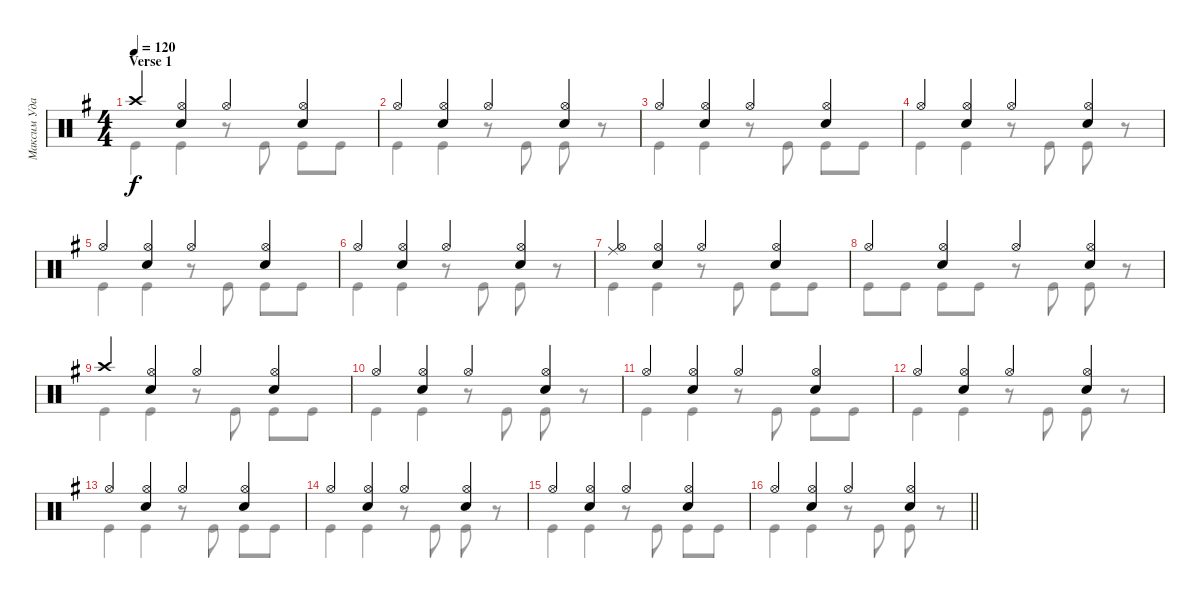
\track ("Максим Удалов" "Максим Уда") {instrument percussion}
\staff {score}
\articulation defaults
\voice
\ts (4 4)
\section ("" "Verse 1")
\tempo 120
\clef neutral
\ks g "Crash high (hit)".4{dy f}
("Snare (hit) 2" "Hi-Hat (open)").4 "Hi-Hat (open)".4 ("Snare (hit) 2" "Hi-Hat (open)").4 |
"Hi-Hat (open)".4 ("Snare (hit) 2" "Hi-Hat (open)").4 "Hi-Hat (open)".4 ("Snare (hit) 2" "Hi-Hat (open)").4 |
"Hi-Hat (open)".4 ("Snare (hit) 2" "Hi-Hat (open)").4 "Hi-Hat (open)".4 ("Snare (hit) 2" "Hi-Hat (open)").4 |
"Hi-Hat (open)".4 ("Snare (hit) 2" "Hi-Hat (open)").4 "Hi-Hat (open)".4 ("Snare (hit) 2" "Hi-Hat (open)").4 |
"Hi-Hat (open)".4 ("Snare (hit) 2" "Hi-Hat (open)").4 "Hi-Hat (open)".4 ("Snare (hit) 2" "Hi-Hat (open)").4 |
"Hi-Hat (open)".4 ("Snare (hit) 2" "Hi-Hat (open)").4 "Hi-Hat (open)".4 ("Snare (hit) 2" "Hi-Hat (open)").4 |
("Hi-Hat (open)" "Ride (middle)").4 ("Snare (hit) 2" "Hi-Hat (open)").4 "Hi-Hat (open)".4 ("Snare (hit) 2" "Hi-Hat (open)").4 |
"Hi-Hat (open)".4 ("Snare (hit) 2" "Hi-Hat (open)").4 "Hi-Hat (open)".4 ("Snare (hit) 2" "Hi-Hat (open)").4 |
"Crash high (hit)".4 ("Snare (hit) 2" "Hi-Hat (open)").4 "Hi-Hat (open)".4 ("Snare (hit) 2" "Hi-Hat (open)").4 |
"Hi-Hat (open)".4 ("Snare (hit) 2" "Hi-Hat (open)").4 "Hi-Hat (open)".4 ("Snare (hit) 2" "Hi-Hat (open)").4 |
"Hi-Hat (open)".4 ("Snare (hit) 2" "Hi-Hat (open)").4 "Hi-Hat (open)".4 ("Snare (hit) 2" "Hi-Hat (open)").4 |
"Hi-Hat (open)".4 ("Snare (hit) 2" "Hi-Hat (open)").4 "Hi-Hat (open)".4 ("Snare (hit) 2" "Hi-Hat (open)").4 |
"Hi-Hat (open)".4 ("Snare (hit) 2" "Hi-Hat (open)").4 "Hi-Hat (open)".4 ("Snare (hit) 2" "Hi-Hat (open)").4 |
"Hi-Hat (open)".4 ("Snare (hit) 2" "Hi-Hat (open)").4 "Hi-Hat (open)".4 ("Snare (hit) 2" "Hi-Hat (open)").4 |
"Hi-Hat (open)".4 ("Snare (hit) 2" "Hi-Hat (open)").4 "Hi-Hat (open)".4 ("Snare (hit) 2" "Hi-Hat (open)").4 |
\barLineRight lightlight "Hi-Hat (open)".4
("Snare (hit) 2" "Hi-Hat (open)").4 "Hi-Hat (open)".4 ("Snare (hit) 2" "Hi-Hat (open)").4
\voice
\clef neutral
\ottava regular
\simile none
\ks g "Kick (hit)".4{dy f} "Kick (hit)".4
r.8 "Kick (hit)".8 "Kick (hit)".8 "Kick (hit)".8 |
"Kick (hit)".4 "Kick (hit)".4 r.8 "Kick (hit)".8 "Kick (hit)".8 r.8 |
"Kick (hit)".4 "Kick (hit)".4 r.8 "Kick (hit)".8 "Kick (hit)".8 "Kick (hit)".8 |
"Kick (hit)".4 "Kick (hit)".4 r.8 "Kick (hit)".8 "Kick (hit)".8 r.8 |
"Kick (hit)".4 "Kick (hit)".4 r.8 "Kick (hit)".8 "Kick (hit)".8 "Kick (hit)".8 |
"Kick (hit)".4 "Kick (hit)".4 r.8 "Kick (hit)".8 "Kick (hit)".8 r.8 |
"Kick (hit)".4 "Kick (hit)".4 r.8 "Kick (hit)".8 "Kick (hit)".8 "Kick (hit)".8 |
"Kick (hit)".8 "Kick (hit)".8 "Kick (hit)".8 "Kick (hit)".8 r.8 "Kick (hit)".8 "Kick (hit)".8 r.8 |
"Kick (hit)".4 "Kick (hit)".4 r.8 "Kick (hit)".8 "Kick (hit)".8 "Kick (hit)".8 |
"Kick (hit)".4 "Kick (hit)".4 r.8 "Kick (hit)".8 "Kick (hit)".8 r.8 |
"Kick (hit)".4 "Kick (hit)".4 r.8 "Kick (hit)".8 "Kick (hit)".8 "Kick (hit)".8 |
"Kick (hit)".4 "Kick (hit)".4 r.8 "Kick (hit)".8 "Kick (hit)".8 r.8 |
"Kick (hit)".4 "Kick (hit)".4 r.8 "Kick (hit)".8 "Kick (hit)".8 "Kick (hit)".8 |
"Kick (hit)".4 "Kick (hit)".4 r.8 "Kick (hit)".8 "Kick (hit)".8 r.8 |
"Kick (hit)".4 "Kick (hit)".4 r.8 "Kick (hit)".8 "Kick (hit)".8 "Kick (hit)".8 |
\barLineRight lightlight "Kick (hit)".4 "Kick (hit)".4
r.8 "Kick (hit)".8 "Kick (hit)".8 r.8
